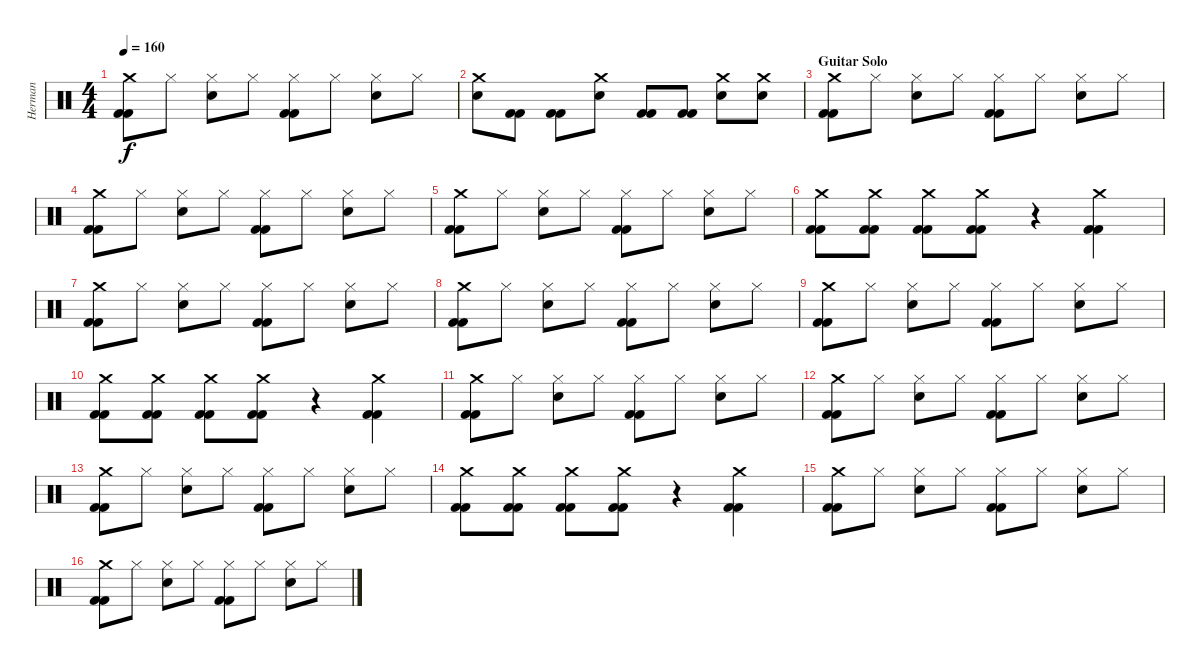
\track ("Herman" "Herman") {instrument percussion}
\staff {score}
\articulation defaults
\ts (4 4)
\tempo 160
\clef neutral
\ks c
("Crash medium (hit)" "Kick (hit) 2" "Kick (hit) 2").8{dy f} "Hi-Hat (closed)".8 ("Electric Snare (hit)" "Hi-Hat (closed)").8 "Hi-Hat (closed)".8 ("Hi-Hat (closed)" "Kick (hit) 2" "Kick (hit) 2").8 "Hi-Hat (closed)".8 ("Electric Snare (hit)" "Hi-Hat (closed)").8 "Hi-Hat (closed)".8 |
("Crash medium (hit)" "Electric Snare (hit)").8 ("Kick (hit) 2" "Kick (hit) 2").8 ("Kick (hit) 2" "Kick (hit) 2").8 ("Crash medium (hit)" "Electric Snare (hit)").8 ("Kick (hit) 2" "Kick (hit) 2").8 ("Kick (hit) 2" "Kick (hit) 2").8 ("Crash medium (hit)" "Electric Snare (hit)").8 ("Crash medium (hit)" "Electric Snare (hit)").8 |
\section ("" "Guitar Solo")
("Crash medium (hit)" "Kick (hit) 2" "Kick (hit) 2").8 "Hi-Hat (closed)".8 ("Electric Snare (hit)" "Hi-Hat (closed)").8 "Hi-Hat (closed)".8 ("Hi-Hat (closed)" "Kick (hit) 2" "Kick (hit) 2").8 "Hi-Hat (closed)".8 ("Electric Snare (hit)" "Hi-Hat (closed)").8 "Hi-Hat (closed)".8 |
("Crash medium (hit)" "Kick (hit) 2" "Kick (hit) 2").8 "Hi-Hat (closed)".8 ("Electric Snare (hit)" "Hi-Hat (closed)").8 "Hi-Hat (closed)".8 ("Hi-Hat (closed)" "Kick (hit) 2" "Kick (hit) 2").8 "Hi-Hat (closed)".8 ("Electric Snare (hit)" "Hi-Hat (closed)").8 "Hi-Hat (closed)".8 |
("Crash medium (hit)" "Kick (hit) 2" "Kick (hit) 2").8 "Hi-Hat (closed)".8 ("Electric Snare (hit)" "Hi-Hat (closed)").8 "Hi-Hat (closed)".8 ("Hi-Hat (closed)" "Kick (hit) 2" "Kick (hit) 2").8 "Hi-Hat (closed)".8 ("Electric Snare (hit)" "Hi-Hat (closed)").8 "Hi-Hat (closed)".8 |
("Crash medium (hit)" "Kick (hit) 2" "Kick (hit) 2").8 ("Kick (hit) 2" "Kick (hit) 2" "Crash medium (hit)").8 ("Crash medium (hit)" "Kick (hit) 2" "Kick (hit) 2").8 ("Kick (hit) 2" "Kick (hit) 2" "Crash medium (hit)").8 r.4 ("Crash medium (hit)" "Kick (hit) 2" "Kick (hit) 2").4 |
("Crash medium (hit)" "Kick (hit) 2" "Kick (hit) 2").8 "Hi-Hat (closed)".8 ("Electric Snare (hit)" "Hi-Hat (closed)").8 "Hi-Hat (closed)".8 ("Hi-Hat (closed)" "Kick (hit) 2" "Kick (hit) 2").8 "Hi-Hat (closed)".8 ("Electric Snare (hit)" "Hi-Hat (closed)").8 "Hi-Hat (closed)".8 |
("Crash medium (hit)" "Kick (hit) 2" "Kick (hit) 2").8 "Hi-Hat (closed)".8 ("Electric Snare (hit)" "Hi-Hat (closed)").8 "Hi-Hat (closed)".8 ("Hi-Hat (closed)" "Kick (hit) 2" "Kick (hit) 2").8 "Hi-Hat (closed)".8 ("Electric Snare (hit)" "Hi-Hat (closed)").8 "Hi-Hat (closed)".8 |
("Crash medium (hit)" "Kick (hit) 2" "Kick (hit) 2").8 "Hi-Hat (closed)".8 ("Electric Snare (hit)" "Hi-Hat (closed)").8 "Hi-Hat (closed)".8 ("Hi-Hat (closed)" "Kick (hit) 2" "Kick (hit) 2").8 "Hi-Hat (closed)".8 ("Electric Snare (hit)" "Hi-Hat (closed)").8 "Hi-Hat (closed)".8 |
("Crash medium (hit)" "Kick (hit) 2" "Kick (hit) 2").8 ("Kick (hit) 2" "Kick (hit) 2" "Crash medium (hit)").8 ("Crash medium (hit)" "Kick (hit) 2" "Kick (hit) 2").8 ("Kick (hit) 2" "Kick (hit) 2" "Crash medium (hit)").8 r.4 ("Crash medium (hit)" "Kick (hit) 2" "Kick (hit) 2").4 |
("Crash medium (hit)" "Kick (hit) 2" "Kick (hit) 2").8 "Hi-Hat (closed)".8 ("Electric Snare (hit)" "Hi-Hat (closed)").8 "Hi-Hat (closed)".8 ("Hi-Hat (closed)" "Kick (hit) 2" "Kick (hit) 2").8 "Hi-Hat (closed)".8 ("Electric Snare (hit)" "Hi-Hat (closed)").8 "Hi-Hat (closed)".8 |
("Crash medium (hit)" "Kick (hit) 2" "Kick (hit) 2").8 "Hi-Hat (closed)".8 ("Electric Snare (hit)" "Hi-Hat (closed)").8 "Hi-Hat (closed)".8 ("Hi-Hat (closed)" "Kick (hit) 2" "Kick (hit) 2").8 "Hi-Hat (closed)".8 ("Electric Snare (hit)" "Hi-Hat (closed)").8 "Hi-Hat (closed)".8 |
("Crash medium (hit)" "Kick (hit) 2" "Kick (hit) 2").8 "Hi-Hat (closed)".8 ("Electric Snare (hit)" "Hi-Hat (closed)").8 "Hi-Hat (closed)".8 ("Hi-Hat (closed)" "Kick (hit) 2" "Kick (hit) 2").8 "Hi-Hat (closed)".8 ("Electric Snare (hit)" "Hi-Hat (closed)").8 "Hi-Hat (closed)".8 |
("Crash medium (hit)" "Kick (hit) 2" "Kick (hit) 2").8 ("Kick (hit) 2" "Kick (hit) 2" "Crash medium (hit)").8 ("Crash medium (hit)" "Kick (hit) 2" "Kick (hit) 2").8 ("Kick (hit) 2" "Kick (hit) 2" "Crash medium (hit)").8 r.4 ("Crash medium (hit)" "Kick (hit) 2" "Kick (hit) 2").4 |
("Crash medium (hit)" "Kick (hit) 2" "Kick (hit) 2").8 "Hi-Hat (closed)".8 ("Electric Snare (hit)" "Hi-Hat (closed)").8 "Hi-Hat (closed)".8 ("Hi-Hat (closed)" "Kick (hit) 2" "Kick (hit) 2").8 "Hi-Hat (closed)".8 ("Electric Snare (hit)" "Hi-Hat (closed)").8 "Hi-Hat (closed)".8 |
("Crash medium (hit)" "Kick (hit) 2" "Kick (hit) 2").8 "Hi-Hat (closed)".8 ("Electric Snare (hit)" "Hi-Hat (closed)").8 "Hi-Hat (closed)".8 ("Hi-Hat (closed)" "Kick (hit) 2" "Kick (hit) 2").8 "Hi-Hat (closed)".8 ("Electric Snare (hit)" "Hi-Hat (closed)").8 "Hi-Hat (closed)".8
